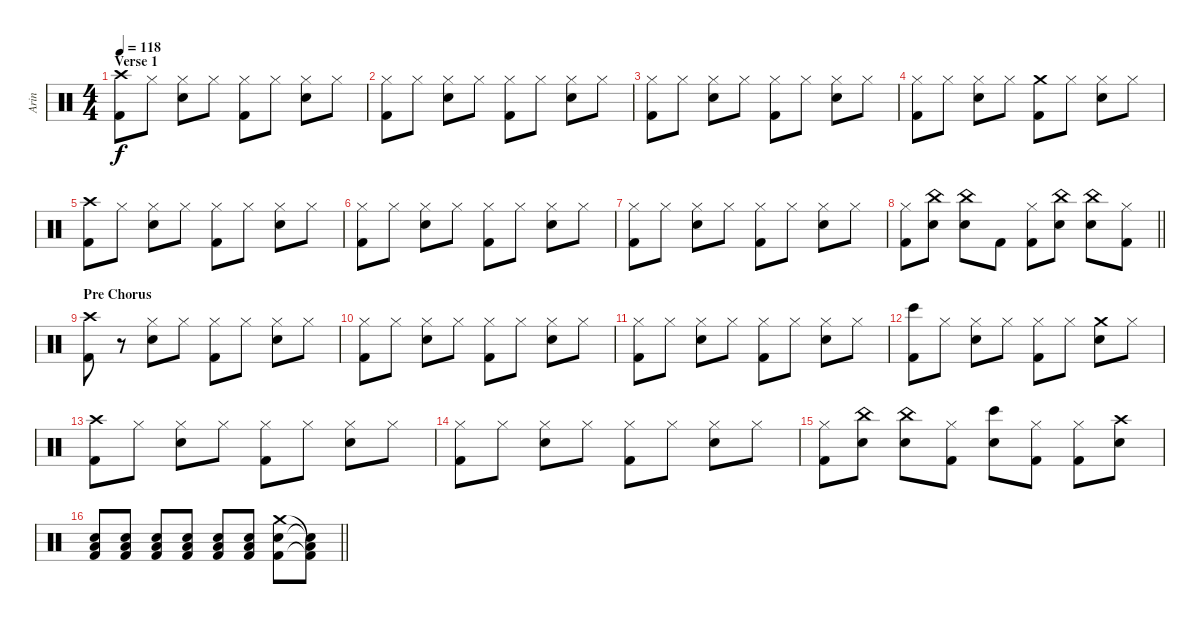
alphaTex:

\track ("Arin" "Arin") {instrument percussion}
\staff {score}
\articulation defaults
\ts (4 4)
\section ("" "Verse 1")
\tempo 118
\clef neutral
\ks c
("Crash high (hit)" "Kick (hit) 2").8{dy f} "Hi-Hat (closed)".8 ("Hi-Hat (closed)" "Electric Snare (hit)").8 "Hi-Hat (closed)".8 ("Hi-Hat (closed)" "Kick (hit) 2").8 "Hi-Hat (closed)".8 ("Hi-Hat (closed)" "Electric Snare (hit)").8 "Hi-Hat (closed)".8 |
("Hi-Hat (closed)" "Kick (hit) 2").8 "Hi-Hat (closed)".8 ("Hi-Hat (closed)" "Electric Snare (hit)").8 "Hi-Hat (closed)".8 ("Hi-Hat (closed)" "Kick (hit) 2").8 "Hi-Hat (closed)".8 ("Hi-Hat (closed)" "Electric Snare (hit)").8 "Hi-Hat (closed)".8 |
("Hi-Hat (closed)" "Kick (hit) 2").8 "Hi-Hat (closed)".8 ("Hi-Hat (closed)" "Electric Snare (hit)").8 "Hi-Hat (closed)".8 ("Hi-Hat (closed)" "Kick (hit) 2").8 "Hi-Hat (closed)".8 ("Hi-Hat (closed)" "Electric Snare (hit)").8 "Hi-Hat (closed)".8 |
("Hi-Hat (closed)" "Kick (hit) 2").8 "Hi-Hat (closed)".8 ("Hi-Hat (closed)" "Electric Snare (hit)").8 "Hi-Hat (closed)".8 ("Crash medium (hit)" "Kick (hit) 2").8 "Hi-Hat (closed)".8 ("Hi-Hat (closed)" "Electric Snare (hit)").8 "Hi-Hat (closed)".8 |
("Crash high (hit)" "Kick (hit) 2").8 "Hi-Hat (closed)".8 ("Hi-Hat (closed)" "Electric Snare (hit)").8 "Hi-Hat (closed)".8 ("Hi-Hat (closed)" "Kick (hit) 2").8 "Hi-Hat (closed)".8 ("Hi-Hat (closed)" "Electric Snare (hit)").8 "Hi-Hat (closed)".8 |
("Hi-Hat (closed)" "Kick (hit) 2").8 "Hi-Hat (closed)".8 ("Hi-Hat (closed)" "Electric Snare (hit)").8 "Hi-Hat (closed)".8 ("Hi-Hat (closed)" "Kick (hit) 2").8 "Hi-Hat (closed)".8 ("Hi-Hat (closed)" "Electric Snare (hit)").8 "Hi-Hat (closed)".8 |
("Hi-Hat (closed)" "Kick (hit) 2").8 "Hi-Hat (closed)".8 ("Hi-Hat (closed)" "Electric Snare (hit)").8 "Hi-Hat (closed)".8 ("Hi-Hat (closed)" "Kick (hit) 2").8 "Hi-Hat (closed)".8 ("Hi-Hat (closed)" "Electric Snare (hit)").8 "Hi-Hat (closed)".8 |
\barLineRight lightlight
("Hi-Hat (closed)" "Kick (hit) 2").8 ("China (hit)" "Electric Snare (hit)").8 ("China (hit)" "Electric Snare (hit)").8 "Kick (hit) 2".8 ("Hi-Hat (closed)" "Kick (hit) 2").8 ("China (hit)" "Electric Snare (hit)").8 ("China (hit)" "Electric Snare (hit)").8 ("Hi-Hat (closed)" "Kick (hit) 2").8 |
\section ("" "Pre Chorus")
("Crash high (hit)" "Kick (hit) 2").8 r.8 ("Hi-Hat (closed)" "Electric Snare (hit)").8 "Hi-Hat (closed)".8 ("Hi-Hat (closed)" "Kick (hit) 2").8 "Hi-Hat (closed)".8 ("Hi-Hat (closed)" "Electric Snare (hit)").8 "Hi-Hat (closed)".8 |
("Hi-Hat (closed)" "Kick (hit) 2").8 "Hi-Hat (closed)".8 ("Hi-Hat (closed)" "Electric Snare (hit)").8 "Hi-Hat (closed)".8 ("Hi-Hat (closed)" "Kick (hit) 2").8 "Hi-Hat (closed)".8 ("Hi-Hat (closed)" "Electric Snare (hit)").8 "Hi-Hat (closed)".8 |
("Hi-Hat (closed)" "Kick (hit) 2").8 "Hi-Hat (closed)".8 ("Hi-Hat (closed)" "Electric Snare (hit)").8 "Hi-Hat (closed)".8 ("Hi-Hat (closed)" "Kick (hit) 2").8 "Hi-Hat (closed)".8 ("Hi-Hat (closed)" "Electric Snare (hit)").8 "Hi-Hat (closed)".8 |
("Bongo High (hit)" "Kick (hit) 2").8 "Hi-Hat (closed)".8 ("Hi-Hat (closed)" "Electric Snare (hit)").8 "Hi-Hat (closed)".8 ("Hi-Hat (closed)" "Kick (hit) 2").8 "Hi-Hat (closed)".8 ("Crash medium (hit)" "Electric Snare (hit)").8 "Hi-Hat (closed)".8 |
("Crash high (hit)" "Kick (hit) 2").8 "Hi-Hat (closed)".8 ("Hi-Hat (closed)" "Electric Snare (hit)").8 "Hi-Hat (closed)".8 ("Hi-Hat (closed)" "Kick (hit) 2").8 "Hi-Hat (closed)".8 ("Hi-Hat (closed)" "Electric Snare (hit)").8 "Hi-Hat (closed)".8 |
("Hi-Hat (closed)" "Kick (hit) 2").8 "Hi-Hat (closed)".8 ("Hi-Hat (closed)" "Electric Snare (hit)").8 "Hi-Hat (closed)".8 ("Hi-Hat (closed)" "Kick (hit) 2").8 "Hi-Hat (closed)".8 ("Hi-Hat (closed)" "Electric Snare (hit)").8 "Hi-Hat (closed)".8 |
("Hi-Hat (closed)" "Kick (hit) 2").8 ("China (hit)" "Electric Snare (hit)").8 ("China (hit)" "Electric Snare (hit)").8 ("Hi-Hat (closed)" "Kick (hit) 2").8 ("Bongo High (hit)" "Electric Snare (hit)").8 ("Hi-Hat (closed)" "Kick (hit) 2").8 ("Hi-Hat (closed)" "Kick (hit) 2").8 ("Crash high (hit)" "Electric Snare (hit)").8 |
\barLineRight lightlight
("Electric Snare (hit)" "Low Tom (hit)" "Kick (hit) 2").8 ("Electric Snare (hit)" "Low Tom (hit)" "Kick (hit) 2").8 ("Electric Snare (hit)" "Low Tom (hit)" "Kick (hit) 2").8 ("Electric Snare (hit)" "Low Tom (hit)" "Kick (hit) 2").8 ("Electric Snare (hit)" "Low Tom (hit)" "Kick (hit) 2").8 ("Electric Snare (hit)" "Low Tom (hit)" "Kick (hit) 2").8 ("Electric Snare (hit)" "Crash medium (hit)" "Kick (hit) 2").8 ("Electric Snare (hit)"{t} "Low Tom (hit)"{t} "Kick (hit) 2"{t}).8
